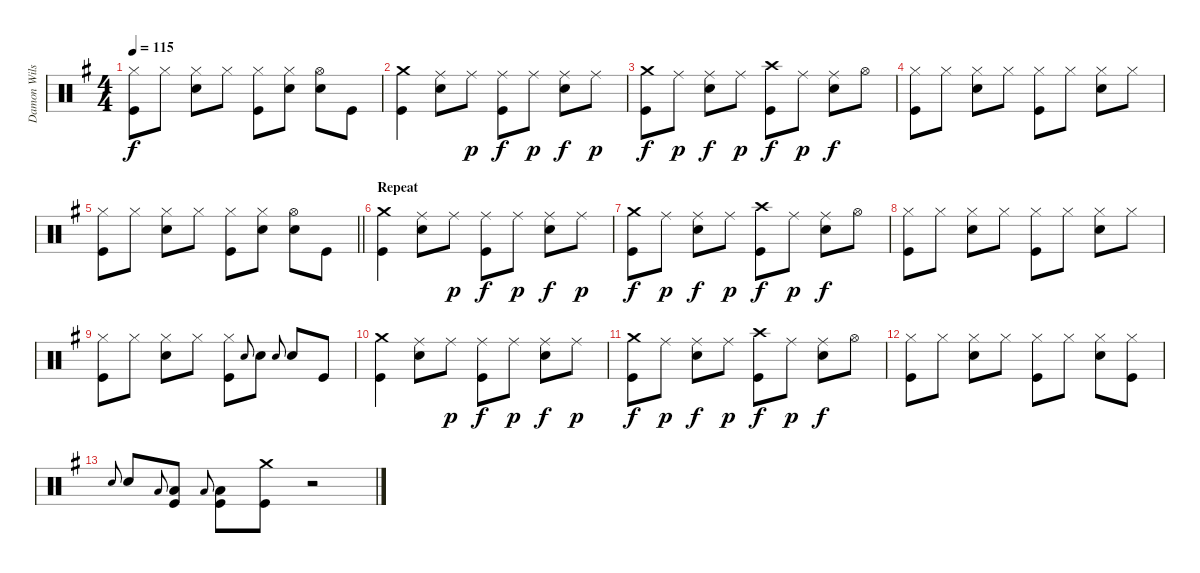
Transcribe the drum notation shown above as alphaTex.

\track ("Damon Wilson" "Damon Wils") {instrument percussion}
\staff {score}
\articulation defaults
\ts (4 4)
\tempo 115
\clef neutral
\ks g
("Hi-Hat (closed)" "Kick (hit)").8{dy f} "Hi-Hat (closed)".8 ("Hi-Hat (closed)" "Electric Snare (hit)").8 "Hi-Hat (closed)".8 ("Hi-Hat (closed)" "Kick (hit)").8 ("Hi-Hat (closed)" "Electric Snare (hit)").8 ("Hi-Hat (open)" "Electric Snare (hit)").8 "Kick (hit)".8 |
("Crash medium (hit)" "Kick (hit)").4 ("Ride (middle)" "Electric Snare (hit)").8 "Ride (middle)".8{dy p} ("Ride (middle)" "Kick (hit)").8{dy f} "Ride (middle)".8{dy p} ("Ride (middle)" "Electric Snare (hit)").8{dy f} "Ride (middle)".8{dy p} |
("Crash medium (hit)" "Kick (hit)").8{dy f} "Ride (middle)".8{dy p} ("Ride (middle)" "Electric Snare (hit)").8{dy f} "Ride (middle)".8{dy p} ("Crash high (hit)" "Kick (hit)").8{dy f} "Ride (middle)".8{dy p} ("Ride (middle)" "Electric Snare (hit)").8{dy f} "Hi-Hat (open)".8 |
("Hi-Hat (closed)" "Kick (hit)").8 "Hi-Hat (closed)".8 ("Hi-Hat (closed)" "Electric Snare (hit)").8 "Hi-Hat (closed)".8 ("Hi-Hat (closed)" "Kick (hit)").8 "Hi-Hat (closed)".8 ("Hi-Hat (closed)" "Electric Snare (hit)").8 "Hi-Hat (closed)".8 |
\barLineRight lightlight
("Hi-Hat (closed)" "Kick (hit)").8 "Hi-Hat (closed)".8 ("Hi-Hat (closed)" "Electric Snare (hit)").8 "Hi-Hat (closed)".8 ("Hi-Hat (closed)" "Kick (hit)").8 ("Hi-Hat (closed)" "Electric Snare (hit)").8 ("Hi-Hat (open)" "Electric Snare (hit)").8 "Kick (hit)".8 |
\section ("" "Repeat")
("Crash medium (hit)" "Kick (hit)").4 ("Ride (middle)" "Electric Snare (hit)").8 "Ride (middle)".8{dy p} ("Ride (middle)" "Kick (hit)").8{dy f} "Ride (middle)".8{dy p} ("Ride (middle)" "Electric Snare (hit)").8{dy f} "Ride (middle)".8{dy p} |
("Crash medium (hit)" "Kick (hit)").8{dy f} "Ride (middle)".8{dy p} ("Ride (middle)" "Electric Snare (hit)").8{dy f} "Ride (middle)".8{dy p} ("Crash high (hit)" "Kick (hit)").8{dy f} "Ride (middle)".8{dy p} ("Ride (middle)" "Electric Snare (hit)").8{dy f} "Hi-Hat (open)".8 |
("Hi-Hat (closed)" "Kick (hit)").8 "Hi-Hat (closed)".8 ("Hi-Hat (closed)" "Electric Snare (hit)").8 "Hi-Hat (closed)".8 ("Hi-Hat (closed)" "Kick (hit)").8 "Hi-Hat (closed)".8 ("Hi-Hat (closed)" "Electric Snare (hit)").8 "Hi-Hat (closed)".8 |
("Hi-Hat (closed)" "Kick (hit)").8 "Hi-Hat (closed)".8 ("Hi-Hat (closed)" "Electric Snare (hit)").8 "Hi-Hat (closed)".8 ("Hi-Hat (closed)" "Kick (hit)").8 "Electric Snare (hit)".8{gr onbeat} "Electric Snare (hit)".8 "Electric Snare (hit)".8{gr onbeat} "Electric Snare (hit)".8 "Kick (hit)".8 |
("Crash medium (hit)" "Kick (hit)").4 ("Ride (middle)" "Electric Snare (hit)").8 "Ride (middle)".8{dy p} ("Ride (middle)" "Kick (hit)").8{dy f} "Ride (middle)".8{dy p} ("Ride (middle)" "Electric Snare (hit)").8{dy f} "Ride (middle)".8{dy p} |
("Crash medium (hit)" "Kick (hit)").8{dy f} "Ride (middle)".8{dy p} ("Ride (middle)" "Electric Snare (hit)").8{dy f} "Ride (middle)".8{dy p} ("Crash high (hit)" "Kick (hit)").8{dy f} "Ride (middle)".8{dy p} ("Ride (middle)" "Electric Snare (hit)").8{dy f} "Hi-Hat (open)".8 |
("Hi-Hat (closed)" "Kick (hit)").8 "Hi-Hat (closed)".8 ("Hi-Hat (closed)" "Electric Snare (hit)").8 "Hi-Hat (closed)".8 ("Hi-Hat (closed)" "Kick (hit)").8 "Hi-Hat (closed)".8 ("Hi-Hat (closed)" "Electric Snare (hit)").8 ("Hi-Hat (closed)" "Kick (hit)").8 |
"Electric Snare (hit)".8{gr onbeat} "Electric Snare (hit)".8 "Low Tom (hit)".8{gr onbeat} ("Low Tom (hit)" "Kick (hit)").8 "Low Floor Tom (hit)".8{gr onbeat} ("Low Floor Tom (hit)" "Kick (hit)").8 ("Crash medium (hit)" "Kick (hit)").8 r.2
